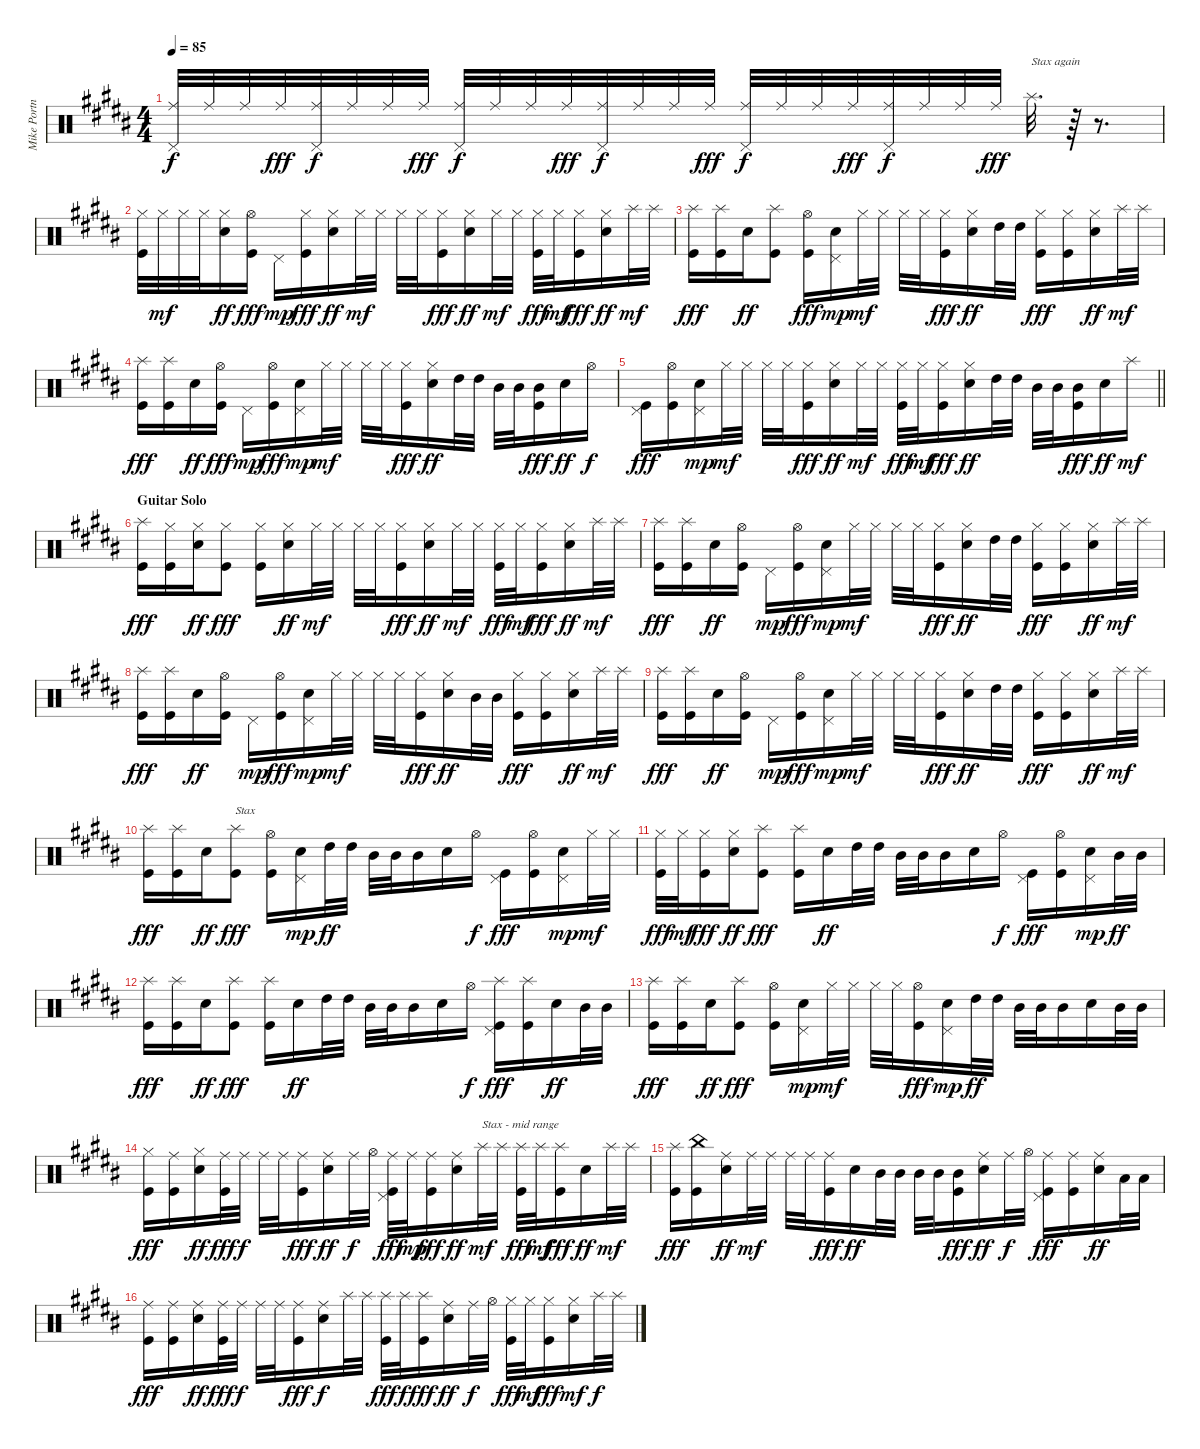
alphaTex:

\track ("Mike Portnoy" "Mike Portn") {instrument percussion}
\staff {score}
\articulation defaults
\ts (4 4)
\tempo 85
\clef neutral
\ks b
("Ride (middle)" "Pedal Hi-Hat (hit)").32{dy f} "Ride (middle)".32 "Ride (middle)".32 "Ride (middle)".32{dy fff} ("Ride (middle)" "Pedal Hi-Hat (hit)").32{dy f} "Ride (middle)".32 "Ride (middle)".32 "Ride (middle)".32{dy fff} ("Ride (middle)" "Pedal Hi-Hat (hit)").32{dy f} "Ride (middle)".32 "Ride (middle)".32 "Ride (middle)".32{dy fff} ("Ride (middle)" "Pedal Hi-Hat (hit)").32{dy f} "Ride (middle)".32 "Ride (middle)".32 "Ride (middle)".32{dy fff} ("Ride (middle)" "Pedal Hi-Hat (hit)").32{dy f} "Ride (middle)".32 "Ride (middle)".32 "Ride (middle)".32{dy fff} ("Ride (middle)" "Pedal Hi-Hat (hit)").32{dy f} "Ride (middle)".32 "Ride (middle)".32 "Ride (middle)".32{dy fff} "Splash (hit)".32{d txt "Stax again"} r.64{volume 0} r.8{d} |
("Hi-Hat (closed)" "Kick (hit)").32{volume 16} "Hi-Hat (closed)".32{dy mf} "Hi-Hat (closed)".32 "Hi-Hat (closed)".32 ("Hi-Hat (closed)" "Electric Snare (hit)").16{dy ff} ("Hi-Hat (open)" "Kick (hit)").16{dy fff} "Pedal Hi-Hat (hit)".16{dy mp} ("Hi-Hat (closed)" "Kick (hit)").16{dy fff} ("Hi-Hat (closed)" "Electric Snare (hit)").16{dy ff} "Hi-Hat (closed)".32{dy mf} "Hi-Hat (closed)".32 "Hi-Hat (closed)".32 "Hi-Hat (closed)".32 ("Hi-Hat (closed)" "Kick (hit)").16{dy fff} ("Hi-Hat (closed)" "Electric Snare (hit)").16{dy ff} "Hi-Hat (closed)".32{dy mf} "Hi-Hat (closed)".32 ("Hi-Hat (closed)" "Kick (hit)").32{dy fff} "Hi-Hat (closed)".32{dy mf} ("Hi-Hat (closed)" "Kick (hit)").16{dy fff} ("Hi-Hat (closed)" "Electric Snare (hit)").16{dy ff} "Splash (hit)".32{dy mf} "Splash (hit)".32 |
("Splash (hit)" "Kick (hit)").16{dy fff} ("Splash (hit)" "Kick (hit)").16 "Electric Snare (hit)".16{dy ff} ("Splash (hit)" "Kick (hit)").8 ("Hi-Hat (open)" "Kick (hit)").16{dy fff} ("Electric Snare (hit)" "Pedal Hi-Hat (hit)").16{dy mp} "Hi-Hat (closed)".32{dy mf} "Hi-Hat (closed)".32 "Hi-Hat (closed)".32 "Hi-Hat (closed)".32 ("Hi-Hat (closed)" "Kick (hit)").16{dy fff} ("Hi-Hat (closed)" "Electric Snare (hit)").16{dy ff} "High Tom (hit)".32 "High Tom (hit)".32 ("Hi-Hat (closed)" "Kick (hit)").16{dy fff} ("Hi-Hat (closed)" "Kick (hit)").16 ("Hi-Hat (closed)" "Electric Snare (hit)").16{dy ff} "Splash (hit)".32{dy mf} "Splash (hit)".32 |
("Splash (hit)" "Kick (hit)").16{dy fff} ("Splash (hit)" "Kick (hit)").16 "Electric Snare (hit)".16{dy ff} ("Hi-Hat (open)" "Kick (hit)").16{dy fff} "Pedal Hi-Hat (hit)".16{dy mp} ("Hi-Hat (open)" "Kick (hit)").16{dy fff} ("Electric Snare (hit)" "Pedal Hi-Hat (hit)").16{dy mp} "Hi-Hat (closed)".32{dy mf} "Hi-Hat (closed)".32 "Hi-Hat (closed)".32 "Hi-Hat (closed)".32 ("Hi-Hat (closed)" "Kick (hit)").16{dy fff} ("Hi-Hat (closed)" "Electric Snare (hit)").16{dy ff} "High Tom (hit)".32 "High Tom (hit)".32 "Mid Tom (hit)".32 "Mid Tom (hit)".32 ("Mid Tom (hit)" "Kick (hit)").16{dy fff} "Electric Snare (hit)".16{dy ff} "Hi-Hat (open)".16{dy f} |
\barLineRight lightlight
("Pedal Hi-Hat (hit)" "Kick (hit)").16{dy fff} ("Hi-Hat (open)" "Kick (hit)").16 ("Electric Snare (hit)" "Pedal Hi-Hat (hit)").16{dy mp} "Hi-Hat (closed)".32{dy mf} "Hi-Hat (closed)".32 "Hi-Hat (closed)".32 "Hi-Hat (closed)".32 ("Hi-Hat (closed)" "Kick (hit)").16{dy fff} ("Hi-Hat (closed)" "Electric Snare (hit)").16{dy ff} "Hi-Hat (closed)".32{dy mf} "Hi-Hat (closed)".32 ("Hi-Hat (closed)" "Kick (hit)").32{dy fff} "Hi-Hat (closed)".32{dy mf} ("Hi-Hat (closed)" "Kick (hit)").16{dy fff} ("Hi-Hat (closed)" "Electric Snare (hit)").16{dy ff} "High Tom (hit)".32 "High Tom (hit)".32 "Mid Tom (hit)".32 "Mid Tom (hit)".32 ("Mid Tom (hit)" "Kick (hit)").16{dy fff} "Electric Snare (hit)".16{dy ff} "Splash (hit)".16{dy mf} |
\section ("" "Guitar Solo")
("Splash (hit)" "Kick (hit)").16{dy fff} ("Hi-Hat (closed)" "Kick (hit)").16 ("Hi-Hat (closed)" "Electric Snare (hit)").16{dy ff} ("Hi-Hat (closed)" "Kick (hit)").8{dy fff} ("Hi-Hat (closed)" "Kick (hit)").16 ("Hi-Hat (closed)" "Electric Snare (hit)").16{dy ff} "Hi-Hat (closed)".32{dy mf} "Hi-Hat (closed)".32 "Hi-Hat (closed)".32 "Hi-Hat (closed)".32 ("Hi-Hat (closed)" "Kick (hit)").16{dy fff} ("Hi-Hat (closed)" "Electric Snare (hit)").16{dy ff} "Hi-Hat (closed)".32{dy mf} "Hi-Hat (closed)".32 ("Hi-Hat (closed)" "Kick (hit)").32{dy fff} "Hi-Hat (closed)".32{dy mf} ("Hi-Hat (closed)" "Kick (hit)").16{dy fff} ("Hi-Hat (closed)" "Electric Snare (hit)").16{dy ff} "Splash (hit)".32{dy mf} "Splash (hit)".32 |
("Splash (hit)" "Kick (hit)").16{dy fff} ("Splash (hit)" "Kick (hit)").16 "Electric Snare (hit)".16{dy ff} ("Hi-Hat (open)" "Kick (hit)").16 "Pedal Hi-Hat (hit)".16{dy mp} ("Hi-Hat (open)" "Kick (hit)").16{dy fff} ("Electric Snare (hit)" "Pedal Hi-Hat (hit)").16{dy mp} "Hi-Hat (closed)".32{dy mf} "Hi-Hat (closed)".32 "Hi-Hat (closed)".32 "Hi-Hat (closed)".32 ("Hi-Hat (closed)" "Kick (hit)").16{dy fff} ("Hi-Hat (closed)" "Electric Snare (hit)").16{dy ff} "High Tom (hit)".32 "High Tom (hit)".32 ("Hi-Hat (closed)" "Kick (hit)").16{dy fff} ("Hi-Hat (closed)" "Kick (hit)").16 ("Hi-Hat (closed)" "Electric Snare (hit)").16{dy ff} "Splash (hit)".32{dy mf} "Splash (hit)".32 |
("Splash (hit)" "Kick (hit)").16{dy fff} ("Splash (hit)" "Kick (hit)").16 "Electric Snare (hit)".16{dy ff} ("Hi-Hat (open)" "Kick (hit)").16 "Pedal Hi-Hat (hit)".16{dy mp} ("Hi-Hat (open)" "Kick (hit)").16{dy fff} ("Electric Snare (hit)" "Pedal Hi-Hat (hit)").16{dy mp} "Hi-Hat (closed)".32{dy mf} "Hi-Hat (closed)".32 "Hi-Hat (closed)".32 "Hi-Hat (closed)".32 ("Hi-Hat (closed)" "Kick (hit)").16{dy fff} ("Hi-Hat (closed)" "Electric Snare (hit)").16{dy ff} "Mid Tom (hit)".32 "Mid Tom (hit)".32 ("Hi-Hat (closed)" "Kick (hit)").16{dy fff} ("Hi-Hat (closed)" "Kick (hit)").16 ("Hi-Hat (closed)" "Electric Snare (hit)").16{dy ff} "Splash (hit)".32{dy mf} "Splash (hit)".32 |
("Splash (hit)" "Kick (hit)").16{dy fff} ("Splash (hit)" "Kick (hit)").16 "Electric Snare (hit)".16{dy ff} ("Hi-Hat (open)" "Kick (hit)").16 "Pedal Hi-Hat (hit)".16{dy mp} ("Hi-Hat (open)" "Kick (hit)").16{dy fff} ("Electric Snare (hit)" "Pedal Hi-Hat (hit)").16{dy mp} "Hi-Hat (closed)".32{dy mf} "Hi-Hat (closed)".32 "Hi-Hat (closed)".32 "Hi-Hat (closed)".32 ("Hi-Hat (closed)" "Kick (hit)").16{dy fff} ("Hi-Hat (closed)" "Electric Snare (hit)").16{dy ff} "High Tom (hit)".32 "High Tom (hit)".32 ("Hi-Hat (closed)" "Kick (hit)").16{dy fff} ("Hi-Hat (closed)" "Kick (hit)").16 ("Hi-Hat (closed)" "Electric Snare (hit)").16{dy ff} "Splash (hit)".32{dy mf} "Splash (hit)".32 |
("Splash (hit)" "Kick (hit)").16{dy fff} ("Splash (hit)" "Kick (hit)").16 "Electric Snare (hit)".16{dy ff} ("Splash (hit)" "Kick (hit)").8{txt "Stax" dy fff} ("Hi-Hat (open)" "Kick (hit)").16 ("Electric Snare (hit)" "Pedal Hi-Hat (hit)").16{dy mp} "High Tom (hit)".32{dy ff} "High Tom (hit)".32 "Mid Tom (hit)".32 "Mid Tom (hit)".32 "Mid Tom (hit)".16 "Electric Snare (hit)".16 "Hi-Hat (open)".16{dy f} ("Pedal Hi-Hat (hit)" "Kick (hit)").16{dy fff} ("Hi-Hat (open)" "Kick (hit)").16 ("Electric Snare (hit)" "Pedal Hi-Hat (hit)").16{dy mp} "Hi-Hat (closed)".32{dy mf} "Hi-Hat (closed)".32 |
("Hi-Hat (closed)" "Kick (hit)").32{dy fff} "Hi-Hat (closed)".32{dy mf} ("Hi-Hat (closed)" "Kick (hit)").16{dy fff} ("Hi-Hat (closed)" "Electric Snare (hit)").16{dy ff} ("Splash (hit)" "Kick (hit)").8{dy fff} ("Splash (hit)" "Kick (hit)").16 "Electric Snare (hit)".16{dy ff} "High Tom (hit)".32 "High Tom (hit)".32 "Mid Tom (hit)".32 "Mid Tom (hit)".32 "Mid Tom (hit)".16 "Electric Snare (hit)".16 "Hi-Hat (open)".16{dy f} ("Pedal Hi-Hat (hit)" "Kick (hit)").16{dy fff} ("Hi-Hat (open)" "Kick (hit)").16 ("Electric Snare (hit)" "Pedal Hi-Hat (hit)").16{dy mp} "Mid Tom (hit)".32{dy ff} "Mid Tom (hit)".32 |
("Splash (hit)" "Kick (hit)").16{dy fff} ("Splash (hit)" "Kick (hit)").16 "Electric Snare (hit)".16{dy ff} ("Splash (hit)" "Kick (hit)").8{dy fff} ("Splash (hit)" "Kick (hit)").16 "Electric Snare (hit)".16{dy ff} "High Tom (hit)".32 "High Tom (hit)".32 "Mid Tom (hit)".32 "Mid Tom (hit)".32 "Mid Tom (hit)".16 "Electric Snare (hit)".16 "Hi-Hat (open)".16{dy f} ("Splash (hit)" "Pedal Hi-Hat (hit)" "Kick (hit)").16{dy fff} ("Splash (hit)" "Kick (hit)").16 "Electric Snare (hit)".16{dy ff} "Mid Tom (hit)".32 "Mid Tom (hit)".32 |
("Splash (hit)" "Kick (hit)").16{dy fff} ("Splash (hit)" "Kick (hit)").16 "Electric Snare (hit)".16{dy ff} ("Splash (hit)" "Kick (hit)").8{dy fff} ("Hi-Hat (open)" "Kick (hit)").16 ("Electric Snare (hit)" "Pedal Hi-Hat (hit)").16{dy mp} "Hi-Hat (closed)".32{dy mf} "Hi-Hat (closed)".32 "Hi-Hat (closed)".32 "Hi-Hat (closed)".32 ("Hi-Hat (open)" "Kick (hit)").16{dy fff} ("Electric Snare (hit)" "Pedal Hi-Hat (hit)").16{dy mp} "High Tom (hit)".32{dy ff} "High Tom (hit)".32 "Mid Tom (hit)".32 "Mid Tom (hit)".32 "Mid Tom (hit)".16 "Electric Snare (hit)".16 "Mid Tom (hit)".32 "Mid Tom (hit)".32 |
("Hi-Hat (closed)" "Kick (hit)").16{dy fff} ("Ride (middle)" "Kick (hit)").16 ("Hi-Hat (closed)" "Electric Snare (hit)").16{dy ff} ("Ride (middle)" "Kick (hit)").32{dy fff} "Ride (middle)".32{dy f} "Ride (middle)".32 "Ride (middle)".32 ("Ride (middle)" "Kick (hit)").16{dy fff} ("Ride (middle)" "Electric Snare (hit)").16{dy ff} "Ride (middle)".32{dy f} "Hi-Hat (open)".32 ("Ride (middle)" "Pedal Hi-Hat (hit)" "Kick (hit)").32{dy fff} "Ride (middle)".32{dy mp} ("Ride (middle)" "Kick (hit)").16{dy fff} ("Ride (middle)" "Electric Snare (hit)").16{dy ff} "Splash (hit)".32{txt "Stax - mid range" dy mf} "Splash (hit)".32 ("Splash (hit)" "Kick (hit)").32{dy fff} "Splash (hit)".32{dy mf} ("Splash (hit)" "Kick (hit)").16{dy fff} "Electric Snare (hit)".16{dy ff} "Splash (hit)".32{dy mf} "Splash (hit)".32 |
("Splash (hit)" "Kick (hit)").16{dy fff} ("China (hit)" "Kick (hit)").16 ("Ride (middle)" "Electric Snare (hit)").16{dy ff} "Ride (middle)".32{dy mf} "Ride (middle)".32 "Ride (middle)".32 "Ride (middle)".32 ("Ride (middle)" "Kick (hit)").16{dy fff} "Electric Snare (hit)".16{dy ff} "Mid Tom (hit)".32 "Mid Tom (hit)".32 "Mid Tom (hit)".32 "Mid Tom (hit)".32 ("Mid Tom (hit)" "Kick (hit)").16{dy fff} ("Ride (middle)" "Electric Snare (hit)").16{dy ff} "Ride (middle)".32{dy f} "Hi-Hat (open)".32 ("Ride (middle)" "Pedal Hi-Hat (hit)" "Kick (hit)").16{dy fff} ("Ride (middle)" "Kick (hit)").16 ("Ride (middle)" "Electric Snare (hit)").16{dy ff} "Low Tom (hit)".32 "Low Tom (hit)".32 |
("Ride (middle)" "Kick (hit)").16{dy fff} ("Ride (middle)" "Kick (hit)").16 ("Ride (middle)" "Electric Snare (hit)").16{dy ff} ("Ride (middle)" "Kick (hit)").32{dy fff} "Ride (middle)".32{dy f} "Ride (middle)".32 "Ride (middle)".32 ("Ride (middle)" "Kick (hit)").16{dy fff} ("Ride (middle)" "Electric Snare (hit)").16{dy f} "Splash (hit)".32 "Splash (hit)".32 ("Splash (hit)" "Kick (hit)").32{dy fff} "Splash (hit)".32{dy f} ("Splash (hit)" "Kick (hit)").16{dy fff} ("Ride (middle)" "Electric Snare (hit)").16{dy ff} "Ride (middle)".32{dy f} "Hi-Hat (open)".32 ("Hi-Hat (closed)" "Kick (hit)").32{dy fff} "Hi-Hat (closed)".32{dy mf} ("Hi-Hat (closed)" "Kick (hit)").16{dy fff} ("Hi-Hat (closed)" "Electric Snare (hit)").16{dy mf} "Splash (hit)".32{dy f} "Splash (hit)".32
